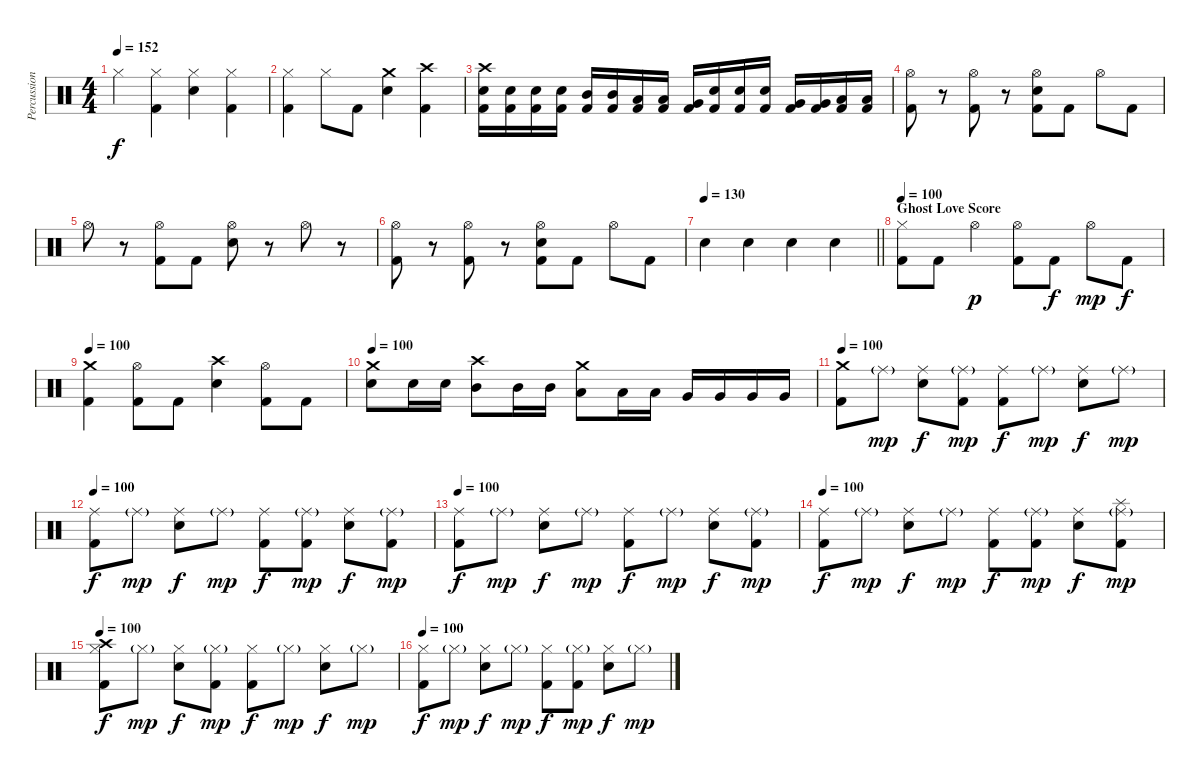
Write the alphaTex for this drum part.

\track ("Percussion" "Percussion") {instrument percussion}
\staff {score}
\articulation defaults
\ts (4 4)
\tempo 152
\clef neutral
\ks c "Hi-Hat (closed)".4{dy f}
("Hi-Hat (closed)" "Kick (hit) 2").4 ("Hi-Hat (closed)" "Electric Snare (hit)").4 ("Hi-Hat (closed)" "Kick (hit) 2").4 |
("Hi-Hat (closed)" "Kick (hit) 2").4 "Hi-Hat (closed)".8 "Kick (hit) 2".8 ("Crash medium (hit)" "Electric Snare (hit)").4 ("Crash high (hit)" "Kick (hit) 2").4 |
("Crash high (hit)" "Electric Snare (hit)" "Kick (hit) 2").16 ("Electric Snare (hit)" "Kick (hit) 2").16 ("Electric Snare (hit)" "Kick (hit) 2").16 ("Electric Snare (hit)" "Kick (hit) 2").16 ("Mid Tom (hit)" "Kick (hit) 2").16 ("Mid Tom (hit)" "Kick (hit) 2").16 ("Low Tom (hit)" "Kick (hit) 2").16 ("Low Tom (hit)" "Kick (hit) 2").16 ("Very Low Tom (hit)" "Kick (hit) 2").16 ("Electric Snare (hit)" "Kick (hit) 2").16 ("Electric Snare (hit)" "Kick (hit) 2").16 ("Electric Snare (hit)" "Kick (hit) 2").16 ("Very Low Tom (hit)" "Kick (hit) 2").16 ("Very Low Tom (hit)" "Kick (hit) 2").16 ("Low Floor Tom (hit)" "Kick (hit) 2").16 ("Low Floor Tom (hit)" "Kick (hit) 2").16 |
("Hi-Hat (open)" "Kick (hit) 2").8 r.8 ("Hi-Hat (open)" "Kick (hit) 2").8 r.8 ("Hi-Hat (open)" "Electric Snare (hit)" "Kick (hit) 2").8 "Kick (hit) 2".8 "Hi-Hat (open)".8 "Kick (hit) 2".8 |
"Hi-Hat (open)".8 r.8 ("Hi-Hat (open)" "Kick (hit) 2").8 "Kick (hit) 2".8 ("Hi-Hat (open)" "Electric Snare (hit)").8 r.8 "Hi-Hat (open)".8 r.8 |
("Hi-Hat (open)" "Kick (hit) 2").8 r.8 ("Hi-Hat (open)" "Kick (hit) 2").8 r.8 ("Hi-Hat (open)" "Electric Snare (hit)" "Kick (hit) 2").8 "Kick (hit) 2".8 "Hi-Hat (open)".8 "Kick (hit) 2".8 |
\tempo 130
\barLineRight lightlight "Electric Snare (hit)".4 "Electric Snare (hit)".4 "Electric Snare (hit)".4 "Electric Snare (hit)".4
|
\section ("" "Ghost Love Score")
\tempo 130
\tempo 100
("Hi-Hat (closed)" "Kick (hit) 2").8 "Kick (hit) 2".8 "Hi-Hat (open)".4{dy p} ("Hi-Hat (open)" "Kick (hit) 2").8 "Kick (hit) 2".8{dy f} "Hi-Hat (open)".8{dy mp} "Kick (hit) 2".8{dy f} |
\tempo 100
("Crash medium (hit)" "Kick (hit) 2").4 ("Hi-Hat (open)" "Kick (hit) 2").8 "Kick (hit) 2".8 ("Crash high (hit)" "Electric Snare (hit)").4 ("Hi-Hat (open)" "Kick (hit) 2").8 "Kick (hit) 2".8 |
\tempo 100
("Crash medium (hit)" "Electric Snare (hit)").8 "Electric Snare (hit)".16 "Electric Snare (hit)".16 ("Crash high (hit)" "Mid Tom (hit)").8 "Mid Tom (hit)".16 "Mid Tom (hit)".16 ("Crash medium (hit)" "Low Tom (hit)").8 "Low Tom (hit)".16 "Low Tom (hit)".16 "Very Low Tom (hit)".16 "Very Low Tom (hit)".16 "Very Low Tom (hit)".16 "Very Low Tom (hit)".16 |
\tempo 100
("Crash medium (hit)" "Kick (hit) 2").8 "Ride (middle)"{g}.8{dy mp} ("Electric Snare (hit)" "Ride (middle)").8{dy f} ("Ride (middle)"{g} "Kick (hit) 2").8{dy mp} ("Ride (middle)" "Kick (hit) 2").8{dy f} "Ride (middle)"{g}.8{dy mp} ("Electric Snare (hit)" "Ride (middle)").8{dy f} "Ride (middle)"{g}.8{dy mp} |
\tempo 100
("Ride (middle)" "Kick (hit) 2").8{dy f} "Ride (middle)"{g}.8{dy mp} ("Electric Snare (hit)" "Ride (middle)").8{dy f} "Ride (middle)"{g}.8{dy mp} ("Ride (middle)" "Kick (hit) 2").8{dy f} ("Ride (middle)"{g} "Kick (hit) 2").8{dy mp} ("Electric Snare (hit)" "Ride (middle)").8{dy f} ("Ride (middle)"{g} "Kick (hit) 2").8{dy mp} |
\tempo 100
("Ride (middle)" "Kick (hit) 2").8{dy f} "Ride (middle)"{g}.8{dy mp} ("Electric Snare (hit)" "Ride (middle)").8{dy f} "Ride (middle)"{g}.8{dy mp} ("Ride (middle)" "Kick (hit) 2").8{dy f} "Ride (middle)"{g}.8{dy mp} ("Electric Snare (hit)" "Ride (middle)").8{dy f} ("Ride (middle)"{g} "Kick (hit) 2").8{dy mp} |
\tempo 100
("Ride (middle)" "Kick (hit) 2").8{dy f} "Ride (middle)"{g}.8{dy mp} ("Electric Snare (hit)" "Ride (middle)").8{dy f} "Ride (middle)"{g}.8{dy mp} ("Ride (middle)" "Kick (hit) 2").8{dy f} ("Ride (middle)"{g} "Kick (hit) 2").8{dy mp} ("Electric Snare (hit)" "Ride (middle)").8{dy f} ("Splash (hit)" "Ride (middle)"{g} "Kick (hit) 2").8{dy mp} |
\tempo 100
("Crash high (hit)" "Hi-Hat (closed)" "Kick (hit) 2").8{dy f} "Hi-Hat (closed)"{g}.8{dy mp} ("Electric Snare (hit)" "Hi-Hat (closed)").8{dy f} ("Hi-Hat (closed)"{g} "Kick (hit) 2").8{dy mp} ("Hi-Hat (closed)" "Kick (hit) 2").8{dy f} "Hi-Hat (closed)"{g}.8{dy mp} ("Electric Snare (hit)" "Hi-Hat (closed)").8{dy f} "Hi-Hat (closed)"{g}.8{dy mp} |
\tempo 100
("Hi-Hat (closed)" "Kick (hit) 2").8{dy f} "Hi-Hat (closed)"{g}.8{dy mp} ("Electric Snare (hit)" "Hi-Hat (closed)").8{dy f} "Hi-Hat (closed)"{g}.8{dy mp} ("Hi-Hat (closed)" "Kick (hit) 2").8{dy f} ("Hi-Hat (closed)"{g} "Kick (hit) 2").8{dy mp} ("Electric Snare (hit)" "Hi-Hat (closed)").8{dy f} "Hi-Hat (closed)"{g}.8{dy mp}
